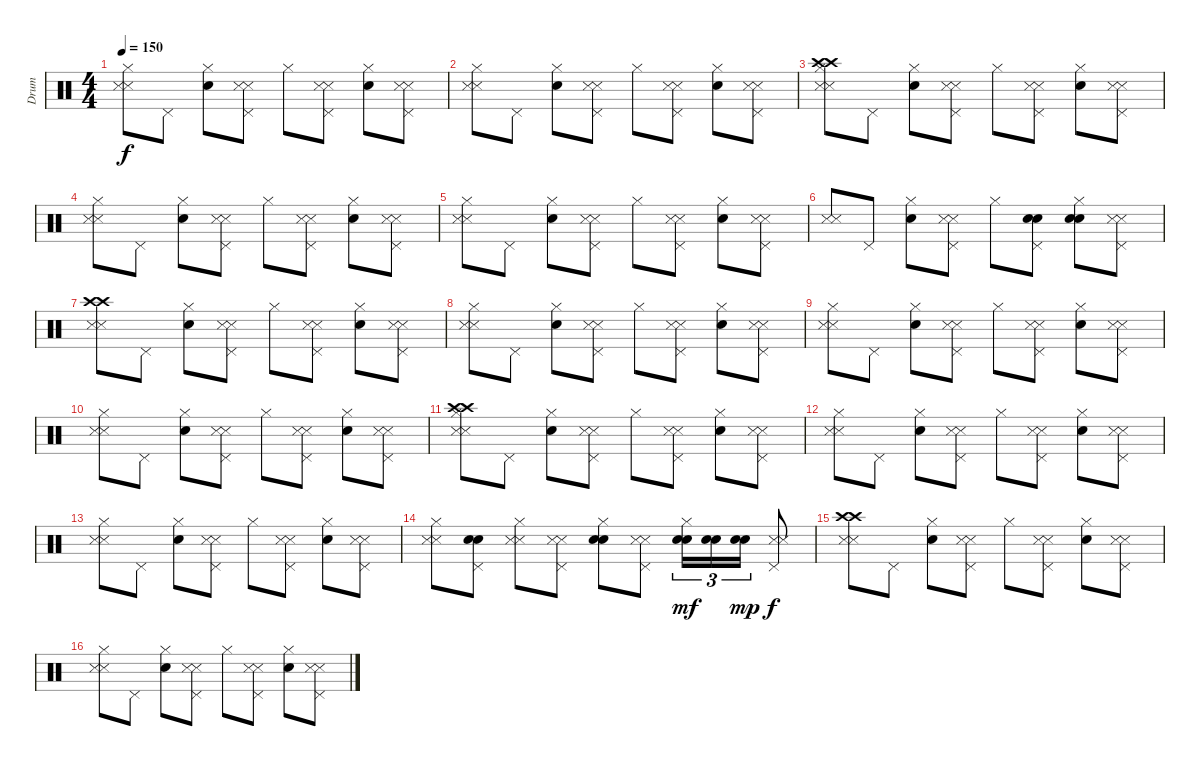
\track ("Drum" "Drum") {instrument percussion}
\staff {score}
\articulation defaults
\ts (4 4)
\tempo 150
\clef neutral
\ks c
("Metronome (hit)" "Metronome (hit)" "Hi-Hat (closed)").8{dy f} "Pedal Hi-Hat (hit)".8 ("Electric Snare (hit)" "Hi-Hat (closed)").8 ("Metronome (hit)" "Metronome (hit)" "Pedal Hi-Hat (hit)").8 "Hi-Hat (closed)".8 ("Metronome (hit)" "Metronome (hit)" "Pedal Hi-Hat (hit)").8 ("Electric Snare (hit)" "Hi-Hat (closed)").8 ("Metronome (hit)" "Metronome (hit)" "Pedal Hi-Hat (hit)").8 |
("Metronome (hit)" "Metronome (hit)" "Hi-Hat (closed)").8 "Pedal Hi-Hat (hit)".8 ("Electric Snare (hit)" "Hi-Hat (closed)").8 ("Metronome (hit)" "Metronome (hit)" "Pedal Hi-Hat (hit)").8 "Hi-Hat (closed)".8 ("Metronome (hit)" "Metronome (hit)" "Pedal Hi-Hat (hit)").8 ("Electric Snare (hit)" "Hi-Hat (closed)").8 ("Metronome (hit)" "Metronome (hit)" "Pedal Hi-Hat (hit)").8 |
("Metronome (hit)" "Metronome (hit)" "Crash high (hit)" "Crash high (hit)" "Hi-Hat (closed)").8 "Pedal Hi-Hat (hit)".8 ("Electric Snare (hit)" "Hi-Hat (closed)").8 ("Metronome (hit)" "Metronome (hit)" "Pedal Hi-Hat (hit)").8 "Hi-Hat (closed)".8 ("Metronome (hit)" "Metronome (hit)" "Pedal Hi-Hat (hit)").8 ("Electric Snare (hit)" "Hi-Hat (closed)").8 ("Metronome (hit)" "Metronome (hit)" "Pedal Hi-Hat (hit)").8 |
("Metronome (hit)" "Metronome (hit)" "Hi-Hat (closed)").8 "Pedal Hi-Hat (hit)".8 ("Electric Snare (hit)" "Hi-Hat (closed)").8 ("Metronome (hit)" "Metronome (hit)" "Pedal Hi-Hat (hit)").8 "Hi-Hat (closed)".8 ("Metronome (hit)" "Metronome (hit)" "Pedal Hi-Hat (hit)").8 ("Electric Snare (hit)" "Hi-Hat (closed)").8 ("Metronome (hit)" "Metronome (hit)" "Pedal Hi-Hat (hit)").8 |
("Metronome (hit)" "Metronome (hit)" "Hi-Hat (closed)").8 "Pedal Hi-Hat (hit)".8 ("Electric Snare (hit)" "Hi-Hat (closed)").8 ("Metronome (hit)" "Metronome (hit)" "Pedal Hi-Hat (hit)").8 "Hi-Hat (closed)".8 ("Metronome (hit)" "Metronome (hit)" "Pedal Hi-Hat (hit)").8 ("Electric Snare (hit)" "Hi-Hat (closed)").8 ("Metronome (hit)" "Metronome (hit)" "Pedal Hi-Hat (hit)").8 |
("Metronome (hit)" "Metronome (hit)").8 "Pedal Hi-Hat (hit)".8 ("Electric Snare (hit)" "Hi-Hat (closed)").8 ("Metronome (hit)" "Metronome (hit)" "Pedal Hi-Hat (hit)").8 "Hi-Hat (closed)".8 ("Electric Snare (hit)" "Electric Snare (hit)" "Pedal Hi-Hat (hit)").8 ("Electric Snare (hit)" "Electric Snare (hit)" "Hi-Hat (closed)").8 ("Metronome (hit)" "Metronome (hit)" "Pedal Hi-Hat (hit)").8 |
("Metronome (hit)" "Metronome (hit)" "Crash high (hit)" "Crash high (hit)").8 "Pedal Hi-Hat (hit)".8 ("Electric Snare (hit)" "Hi-Hat (closed)").8 ("Metronome (hit)" "Metronome (hit)" "Pedal Hi-Hat (hit)").8 "Hi-Hat (closed)".8 ("Metronome (hit)" "Metronome (hit)" "Pedal Hi-Hat (hit)").8 ("Electric Snare (hit)" "Hi-Hat (closed)").8 ("Metronome (hit)" "Metronome (hit)" "Pedal Hi-Hat (hit)").8 |
("Metronome (hit)" "Metronome (hit)" "Hi-Hat (closed)").8 "Pedal Hi-Hat (hit)".8 ("Electric Snare (hit)" "Hi-Hat (closed)").8 ("Metronome (hit)" "Metronome (hit)" "Pedal Hi-Hat (hit)").8 "Hi-Hat (closed)".8 ("Metronome (hit)" "Metronome (hit)" "Pedal Hi-Hat (hit)").8 ("Electric Snare (hit)" "Hi-Hat (closed)").8 ("Metronome (hit)" "Metronome (hit)" "Pedal Hi-Hat (hit)").8 |
("Metronome (hit)" "Metronome (hit)" "Hi-Hat (closed)").8 "Pedal Hi-Hat (hit)".8 ("Electric Snare (hit)" "Hi-Hat (closed)").8 ("Metronome (hit)" "Metronome (hit)" "Pedal Hi-Hat (hit)").8 "Hi-Hat (closed)".8 ("Metronome (hit)" "Metronome (hit)" "Pedal Hi-Hat (hit)").8 ("Electric Snare (hit)" "Hi-Hat (closed)").8 ("Metronome (hit)" "Metronome (hit)" "Pedal Hi-Hat (hit)").8 |
("Metronome (hit)" "Metronome (hit)" "Hi-Hat (closed)").8 "Pedal Hi-Hat (hit)".8 ("Electric Snare (hit)" "Hi-Hat (closed)").8 ("Metronome (hit)" "Metronome (hit)" "Pedal Hi-Hat (hit)").8 "Hi-Hat (closed)".8 ("Metronome (hit)" "Metronome (hit)" "Pedal Hi-Hat (hit)").8 ("Electric Snare (hit)" "Hi-Hat (closed)").8 ("Metronome (hit)" "Metronome (hit)" "Pedal Hi-Hat (hit)").8 |
("Metronome (hit)" "Metronome (hit)" "Crash high (hit)" "Crash high (hit)" "Hi-Hat (closed)").8 "Pedal Hi-Hat (hit)".8 ("Electric Snare (hit)" "Hi-Hat (closed)").8 ("Metronome (hit)" "Metronome (hit)" "Pedal Hi-Hat (hit)").8 "Hi-Hat (closed)".8 ("Metronome (hit)" "Metronome (hit)" "Pedal Hi-Hat (hit)").8 ("Electric Snare (hit)" "Hi-Hat (closed)").8 ("Metronome (hit)" "Metronome (hit)" "Pedal Hi-Hat (hit)").8 |
("Metronome (hit)" "Metronome (hit)" "Hi-Hat (closed)").8 "Pedal Hi-Hat (hit)".8 ("Electric Snare (hit)" "Hi-Hat (closed)").8 ("Metronome (hit)" "Metronome (hit)" "Pedal Hi-Hat (hit)").8 "Hi-Hat (closed)".8 ("Metronome (hit)" "Metronome (hit)" "Pedal Hi-Hat (hit)").8 ("Electric Snare (hit)" "Hi-Hat (closed)").8 ("Metronome (hit)" "Metronome (hit)" "Pedal Hi-Hat (hit)").8 |
("Metronome (hit)" "Metronome (hit)" "Hi-Hat (closed)").8 "Pedal Hi-Hat (hit)".8 ("Electric Snare (hit)" "Hi-Hat (closed)").8 ("Metronome (hit)" "Metronome (hit)" "Pedal Hi-Hat (hit)").8 "Hi-Hat (closed)".8 ("Metronome (hit)" "Metronome (hit)" "Pedal Hi-Hat (hit)").8 ("Electric Snare (hit)" "Hi-Hat (closed)").8 ("Metronome (hit)" "Metronome (hit)" "Pedal Hi-Hat (hit)").8 |
("Metronome (hit)" "Metronome (hit)" "Hi-Hat (closed)").8 ("Electric Snare (hit)" "Electric Snare (hit)" "Pedal Hi-Hat (hit)").8 ("Metronome (hit)" "Metronome (hit)" "Hi-Hat (closed)").8 ("Metronome (hit)" "Metronome (hit)" "Pedal Hi-Hat (hit)").8 ("Electric Snare (hit)" "Electric Snare (hit)" "Hi-Hat (closed)").8 ("Metronome (hit)" "Metronome (hit)" "Pedal Hi-Hat (hit)").8 ("Electric Snare (hit)" "Electric Snare (hit)" "Hi-Hat (closed)").16{tu (3 2) dy mf} ("Electric Snare (hit)" "Electric Snare (hit)").16{tu (3 2)} ("Electric Snare (hit)" "Electric Snare (hit)").16{tu (3 2) dy mp} ("Metronome (hit)" "Metronome (hit)" "Pedal Hi-Hat (hit)").8{dy f} |
("Metronome (hit)" "Metronome (hit)" "Crash high (hit)" "Crash high (hit)").8 "Pedal Hi-Hat (hit)".8 ("Electric Snare (hit)" "Hi-Hat (closed)").8 ("Metronome (hit)" "Metronome (hit)" "Pedal Hi-Hat (hit)").8 "Hi-Hat (closed)".8 ("Metronome (hit)" "Metronome (hit)" "Pedal Hi-Hat (hit)").8 ("Electric Snare (hit)" "Hi-Hat (closed)").8 ("Metronome (hit)" "Metronome (hit)" "Pedal Hi-Hat (hit)").8 |
("Metronome (hit)" "Metronome (hit)" "Hi-Hat (closed)").8 "Pedal Hi-Hat (hit)".8 ("Electric Snare (hit)" "Hi-Hat (closed)").8 ("Metronome (hit)" "Metronome (hit)" "Pedal Hi-Hat (hit)").8 "Hi-Hat (closed)".8 ("Metronome (hit)" "Metronome (hit)" "Pedal Hi-Hat (hit)").8 ("Electric Snare (hit)" "Hi-Hat (closed)").8 ("Metronome (hit)" "Metronome (hit)" "Pedal Hi-Hat (hit)").8
